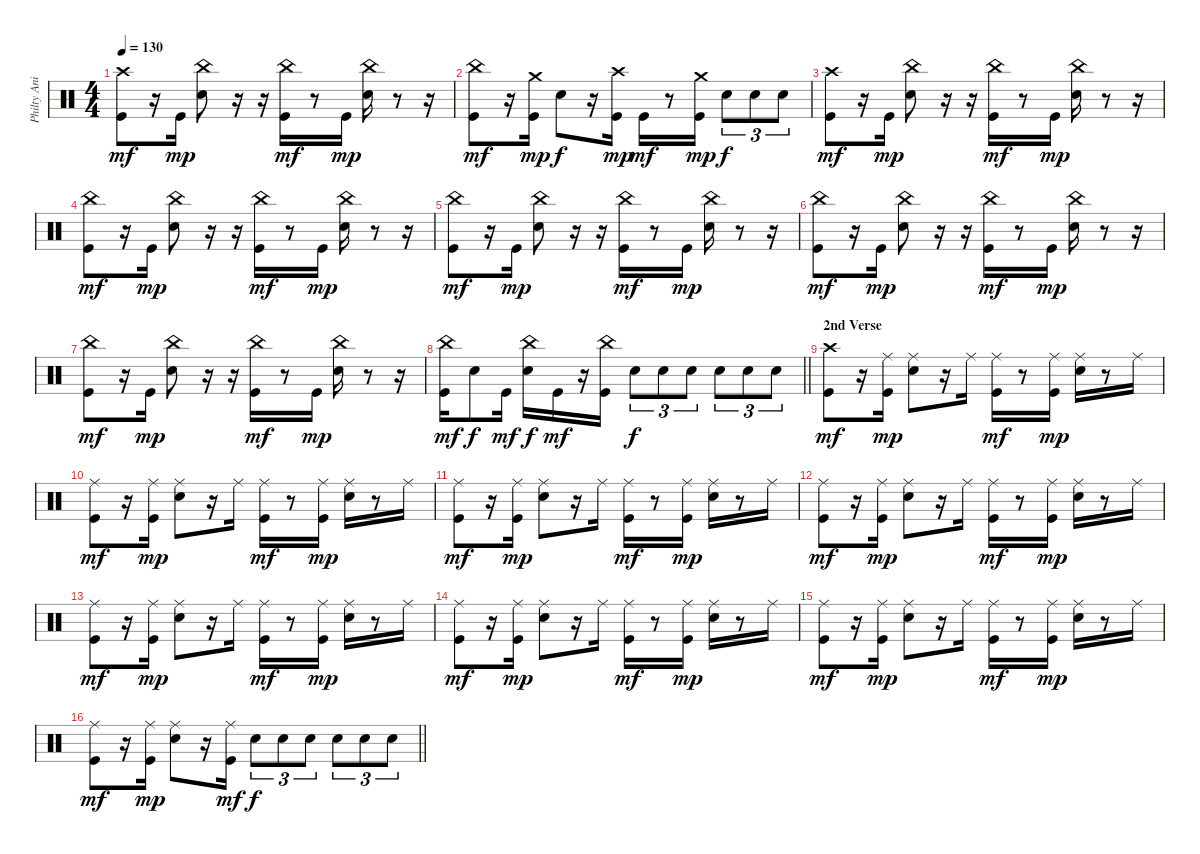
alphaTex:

\track ("Philty Animal Taylor" "Philty Ani") {instrument percussion}
\staff {score}
\articulation defaults
\ts (4 4)
\tempo 130
\clef neutral
\ks c
("Crash high (hit)" "Kick (hit)").8{dy mf} r.16 "Kick (hit)".16{dy mp} ("China (hit)" "Snare (hit) 2").8 r.16 r.16 ("China (hit)" "Kick (hit)").16{dy mf} r.8 "Kick (hit)".16{dy mp} ("China (hit)" "Snare (hit) 2").16 r.8 r.16 |
("China (hit)" "Kick (hit)").8{dy mf} r.16 ("Crash medium (hit)" "Kick (hit)").16{dy mp} "Snare (hit) 2".8{dy f} r.16 ("Crash high (hit)" "Kick (hit)").16{dy mp} "Kick (hit)".16{dy mf} r.8 ("Crash medium (hit)" "Kick (hit)").16{dy mp} "Snare (hit) 2".8{tu (3 2) dy f} "Snare (hit) 2".8{tu (3 2)} "Snare (hit) 2".8{tu (3 2)} |
("Crash high (hit)" "Kick (hit)").8{dy mf} r.16 "Kick (hit)".16{dy mp} ("China (hit)" "Snare (hit) 2").8 r.16 r.16 ("China (hit)" "Kick (hit)").16{dy mf} r.8 "Kick (hit)".16{dy mp} ("China (hit)" "Snare (hit) 2").16 r.8 r.16 |
("China (hit)" "Kick (hit)").8{dy mf} r.16 "Kick (hit)".16{dy mp} ("China (hit)" "Snare (hit) 2").8 r.16 r.16 ("China (hit)" "Kick (hit)").16{dy mf} r.8 "Kick (hit)".16{dy mp} ("China (hit)" "Snare (hit) 2").16 r.8 r.16 |
("China (hit)" "Kick (hit)").8{dy mf} r.16 "Kick (hit)".16{dy mp} ("China (hit)" "Snare (hit) 2").8 r.16 r.16 ("China (hit)" "Kick (hit)").16{dy mf} r.8 "Kick (hit)".16{dy mp} ("China (hit)" "Snare (hit) 2").16 r.8 r.16 |
("China (hit)" "Kick (hit)").8{dy mf} r.16 "Kick (hit)".16{dy mp} ("China (hit)" "Snare (hit) 2").8 r.16 r.16 ("China (hit)" "Kick (hit)").16{dy mf} r.8 "Kick (hit)".16{dy mp} ("China (hit)" "Snare (hit) 2").16 r.8 r.16 |
("China (hit)" "Kick (hit)").8{dy mf} r.16 "Kick (hit)".16{dy mp} ("China (hit)" "Snare (hit) 2").8 r.16 r.16 ("China (hit)" "Kick (hit)").16{dy mf} r.8 "Kick (hit)".16{dy mp} ("China (hit)" "Snare (hit) 2").16 r.8 r.16 |
\barLineRight lightlight
("China (hit)" "Kick (hit)").16{dy mf} "Snare (hit) 2".8{dy f} "Kick (hit)".16{dy mf} ("China (hit)" "Snare (hit) 2").16{dy f} "Kick (hit)".16{dy mf} r.16 ("China (hit)" "Kick (hit)").16 "Snare (hit) 2".8{tu (3 2) dy f} "Snare (hit) 2".8{tu (3 2)} "Snare (hit) 2".8{tu (3 2)} "Snare (hit) 2".8{tu (3 2)} "Snare (hit) 2".8{tu (3 2)} "Snare (hit) 2".8{tu (3 2)} |
\section ("" "2nd Verse")
("Crash high (hit)" "Kick (hit)").8{dy mf} r.16 ("Ride (middle)" "Kick (hit)").16{dy mp} ("Ride (middle)" "Snare (hit) 2").8 r.16 "Ride (middle)".16 ("Ride (middle)" "Kick (hit)").16{dy mf} r.8 ("Ride (middle)" "Kick (hit)").16{dy mp} ("Ride (middle)" "Snare (hit) 2").16 r.8 "Ride (middle)".16 |
("Ride (middle)" "Kick (hit)").8{dy mf} r.16 ("Ride (middle)" "Kick (hit)").16{dy mp} ("Ride (middle)" "Snare (hit) 2").8 r.16 "Ride (middle)".16 ("Ride (middle)" "Kick (hit)").16{dy mf} r.8 ("Ride (middle)" "Kick (hit)").16{dy mp} ("Ride (middle)" "Snare (hit) 2").16 r.8 "Ride (middle)".16 |
("Ride (middle)" "Kick (hit)").8{dy mf} r.16 ("Ride (middle)" "Kick (hit)").16{dy mp} ("Ride (middle)" "Snare (hit) 2").8 r.16 "Ride (middle)".16 ("Ride (middle)" "Kick (hit)").16{dy mf} r.8 ("Ride (middle)" "Kick (hit)").16{dy mp} ("Ride (middle)" "Snare (hit) 2").16 r.8 "Ride (middle)".16 |
("Ride (middle)" "Kick (hit)").8{dy mf} r.16 ("Ride (middle)" "Kick (hit)").16{dy mp} ("Ride (middle)" "Snare (hit) 2").8 r.16 "Ride (middle)".16 ("Ride (middle)" "Kick (hit)").16{dy mf} r.8 ("Ride (middle)" "Kick (hit)").16{dy mp} ("Ride (middle)" "Snare (hit) 2").16 r.8 "Ride (middle)".16 |
("Ride (middle)" "Kick (hit)").8{dy mf} r.16 ("Ride (middle)" "Kick (hit)").16{dy mp} ("Ride (middle)" "Snare (hit) 2").8 r.16 "Ride (middle)".16 ("Ride (middle)" "Kick (hit)").16{dy mf} r.8 ("Ride (middle)" "Kick (hit)").16{dy mp} ("Ride (middle)" "Snare (hit) 2").16 r.8 "Ride (middle)".16 |
("Ride (middle)" "Kick (hit)").8{dy mf} r.16 ("Ride (middle)" "Kick (hit)").16{dy mp} ("Ride (middle)" "Snare (hit) 2").8 r.16 "Ride (middle)".16 ("Ride (middle)" "Kick (hit)").16{dy mf} r.8 ("Ride (middle)" "Kick (hit)").16{dy mp} ("Ride (middle)" "Snare (hit) 2").16 r.8 "Ride (middle)".16 |
("Ride (middle)" "Kick (hit)").8{dy mf} r.16 ("Ride (middle)" "Kick (hit)").16{dy mp} ("Ride (middle)" "Snare (hit) 2").8 r.16 "Ride (middle)".16 ("Ride (middle)" "Kick (hit)").16{dy mf} r.8 ("Ride (middle)" "Kick (hit)").16{dy mp} ("Ride (middle)" "Snare (hit) 2").16 r.8 "Ride (middle)".16 |
\barLineRight lightlight
("Ride (middle)" "Kick (hit)").8{dy mf} r.16 ("Ride (middle)" "Kick (hit)").16{dy mp} ("Ride (middle)" "Snare (hit) 2").8 r.16 ("Ride (middle)" "Kick (hit)").16{dy mf} "Snare (hit) 2".8{tu (3 2) dy f} "Snare (hit) 2".8{tu (3 2)} "Snare (hit) 2".8{tu (3 2)} "Snare (hit) 2".8{tu (3 2)} "Snare (hit) 2".8{tu (3 2)} "Snare (hit) 2".8{tu (3 2)}
